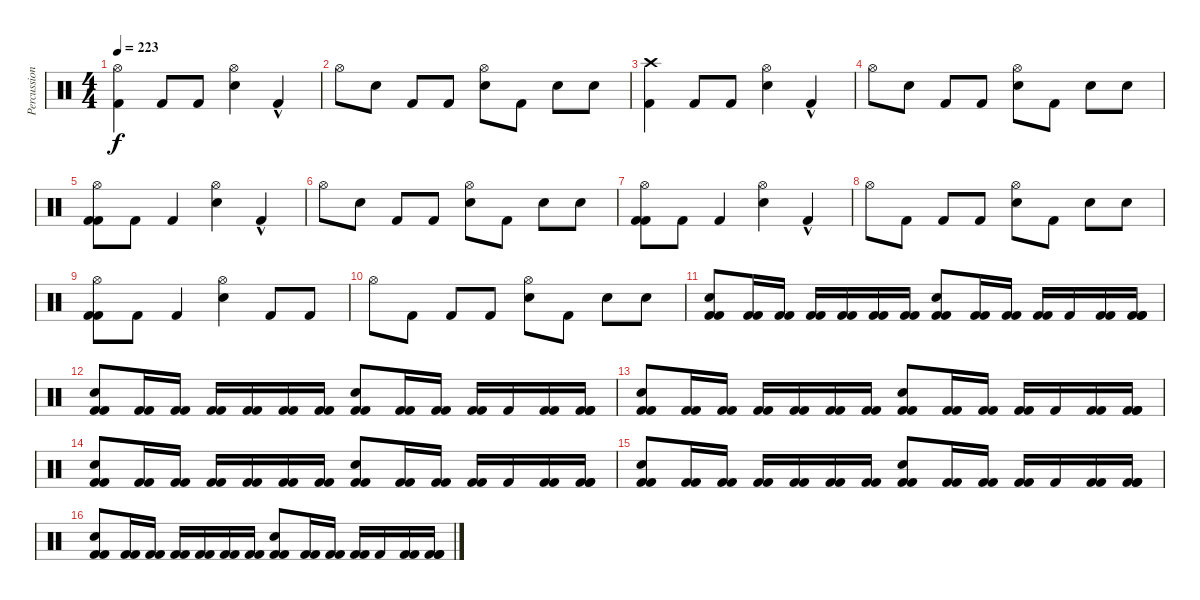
\track ("Percussion" "Percussion") {instrument percussion}
\staff {score}
\articulation defaults
\ts (4 4)
\tempo 223
\clef neutral
\ks c
("Hi-Hat (open)" "Kick (hit) 2").4{dy f} "Kick (hit) 2".8 "Kick (hit) 2".8 ("Hi-Hat (open)" "Electric Snare (hit)").4 "Kick (hit) 2"{hac}.4 |
"Hi-Hat (open)".8 "Electric Snare (hit)".8 "Kick (hit) 2".8 "Kick (hit) 2".8 ("Hi-Hat (open)" "Electric Snare (hit)").8 "Kick (hit) 2".8 "Electric Snare (hit)".8 "Electric Snare (hit)".8 |
("Crash high (hit)" "Kick (hit) 2").4 "Kick (hit) 2".8 "Kick (hit) 2".8 ("Hi-Hat (open)" "Electric Snare (hit)").4 "Kick (hit) 2"{hac}.4 |
"Hi-Hat (open)".8 "Electric Snare (hit)".8 "Kick (hit) 2".8 "Kick (hit) 2".8 ("Hi-Hat (open)" "Electric Snare (hit)").8 "Kick (hit) 2".8 "Electric Snare (hit)".8 "Electric Snare (hit)".8 |
("Hi-Hat (open)" "Kick (hit) 2" "Kick (hit) 2").8 "Kick (hit) 2".8 "Kick (hit) 2".4 ("Hi-Hat (open)" "Electric Snare (hit)").4 "Kick (hit) 2"{hac}.4 |
"Hi-Hat (open)".8 "Electric Snare (hit)".8 "Kick (hit) 2".8 "Kick (hit) 2".8 ("Hi-Hat (open)" "Electric Snare (hit)").8 "Kick (hit) 2".8 "Electric Snare (hit)".8 "Electric Snare (hit)".8 |
("Hi-Hat (open)" "Kick (hit) 2" "Kick (hit) 2").8 "Kick (hit) 2".8 "Kick (hit) 2".4 ("Hi-Hat (open)" "Electric Snare (hit)").4 "Kick (hit) 2"{hac}.4 |
"Hi-Hat (open)".8 "Kick (hit) 2".8 "Kick (hit) 2".8 "Kick (hit) 2".8 ("Hi-Hat (open)" "Electric Snare (hit)").8 "Kick (hit) 2".8 "Electric Snare (hit)".8 "Electric Snare (hit)".8 |
("Hi-Hat (open)" "Kick (hit) 2" "Kick (hit) 2").8 "Kick (hit) 2".8 "Kick (hit) 2".4 ("Hi-Hat (open)" "Electric Snare (hit)").4 "Kick (hit) 2".8 "Kick (hit) 2".8 |
"Hi-Hat (open)".8 "Kick (hit) 2".8 "Kick (hit) 2".8 "Kick (hit) 2".8 ("Hi-Hat (open)" "Electric Snare (hit)").8 "Kick (hit) 2".8 "Electric Snare (hit)".8 "Electric Snare (hit)".8 |
("Electric Snare (hit)" "Kick (hit) 2" "Kick (hit) 2").8 ("Kick (hit) 2" "Kick (hit) 2").16 ("Kick (hit) 2" "Kick (hit) 2").16 ("Kick (hit) 2" "Kick (hit) 2").16 ("Kick (hit) 2" "Kick (hit) 2").16 ("Kick (hit) 2" "Kick (hit) 2").16 ("Kick (hit) 2" "Kick (hit) 2").16 ("Electric Snare (hit)" "Kick (hit) 2" "Kick (hit) 2").8 ("Kick (hit) 2" "Kick (hit) 2").16 ("Kick (hit) 2" "Kick (hit) 2").16 ("Kick (hit) 2" "Kick (hit) 2").16 "Kick (hit) 2".16 ("Kick (hit) 2" "Kick (hit) 2").16 ("Kick (hit) 2" "Kick (hit) 2" "Kick (hit) 2").16 |
("Electric Snare (hit)" "Kick (hit) 2" "Kick (hit) 2").8 ("Kick (hit) 2" "Kick (hit) 2").16 ("Kick (hit) 2" "Kick (hit) 2").16 ("Kick (hit) 2" "Kick (hit) 2").16 ("Kick (hit) 2" "Kick (hit) 2").16 ("Kick (hit) 2" "Kick (hit) 2").16 ("Kick (hit) 2" "Kick (hit) 2").16 ("Electric Snare (hit)" "Kick (hit) 2" "Kick (hit) 2").8 ("Kick (hit) 2" "Kick (hit) 2").16 ("Kick (hit) 2" "Kick (hit) 2").16 ("Kick (hit) 2" "Kick (hit) 2").16 "Kick (hit) 2".16 ("Kick (hit) 2" "Kick (hit) 2").16 ("Kick (hit) 2" "Kick (hit) 2" "Kick (hit) 2").16 |
("Electric Snare (hit)" "Kick (hit) 2" "Kick (hit) 2").8 ("Kick (hit) 2" "Kick (hit) 2").16 ("Kick (hit) 2" "Kick (hit) 2").16 ("Kick (hit) 2" "Kick (hit) 2").16 ("Kick (hit) 2" "Kick (hit) 2").16 ("Kick (hit) 2" "Kick (hit) 2").16 ("Kick (hit) 2" "Kick (hit) 2").16 ("Electric Snare (hit)" "Kick (hit) 2" "Kick (hit) 2").8 ("Kick (hit) 2" "Kick (hit) 2").16 ("Kick (hit) 2" "Kick (hit) 2").16 ("Kick (hit) 2" "Kick (hit) 2").16 "Kick (hit) 2".16 ("Kick (hit) 2" "Kick (hit) 2").16 ("Kick (hit) 2" "Kick (hit) 2" "Kick (hit) 2").16 |
("Electric Snare (hit)" "Kick (hit) 2" "Kick (hit) 2").8 ("Kick (hit) 2" "Kick (hit) 2").16 ("Kick (hit) 2" "Kick (hit) 2").16 ("Kick (hit) 2" "Kick (hit) 2").16 ("Kick (hit) 2" "Kick (hit) 2").16 ("Kick (hit) 2" "Kick (hit) 2").16 ("Kick (hit) 2" "Kick (hit) 2").16 ("Electric Snare (hit)" "Kick (hit) 2" "Kick (hit) 2").8 ("Kick (hit) 2" "Kick (hit) 2").16 ("Kick (hit) 2" "Kick (hit) 2").16 ("Kick (hit) 2" "Kick (hit) 2").16 "Kick (hit) 2".16 ("Kick (hit) 2" "Kick (hit) 2").16 ("Kick (hit) 2" "Kick (hit) 2" "Kick (hit) 2").16 |
("Electric Snare (hit)" "Kick (hit) 2" "Kick (hit) 2").8 ("Kick (hit) 2" "Kick (hit) 2").16 ("Kick (hit) 2" "Kick (hit) 2").16 ("Kick (hit) 2" "Kick (hit) 2").16 ("Kick (hit) 2" "Kick (hit) 2").16 ("Kick (hit) 2" "Kick (hit) 2").16 ("Kick (hit) 2" "Kick (hit) 2").16 ("Electric Snare (hit)" "Kick (hit) 2" "Kick (hit) 2").8 ("Kick (hit) 2" "Kick (hit) 2").16 ("Kick (hit) 2" "Kick (hit) 2").16 ("Kick (hit) 2" "Kick (hit) 2").16 "Kick (hit) 2".16 ("Kick (hit) 2" "Kick (hit) 2").16 ("Kick (hit) 2" "Kick (hit) 2" "Kick (hit) 2").16 |
("Electric Snare (hit)" "Kick (hit) 2" "Kick (hit) 2").8 ("Kick (hit) 2" "Kick (hit) 2").16 ("Kick (hit) 2" "Kick (hit) 2").16 ("Kick (hit) 2" "Kick (hit) 2").16 ("Kick (hit) 2" "Kick (hit) 2").16 ("Kick (hit) 2" "Kick (hit) 2").16 ("Kick (hit) 2" "Kick (hit) 2").16 ("Electric Snare (hit)" "Kick (hit) 2" "Kick (hit) 2").8 ("Kick (hit) 2" "Kick (hit) 2").16 ("Kick (hit) 2" "Kick (hit) 2").16 ("Kick (hit) 2" "Kick (hit) 2").16 "Kick (hit) 2".16 ("Kick (hit) 2" "Kick (hit) 2").16 ("Kick (hit) 2" "Kick (hit) 2" "Kick (hit) 2").16
